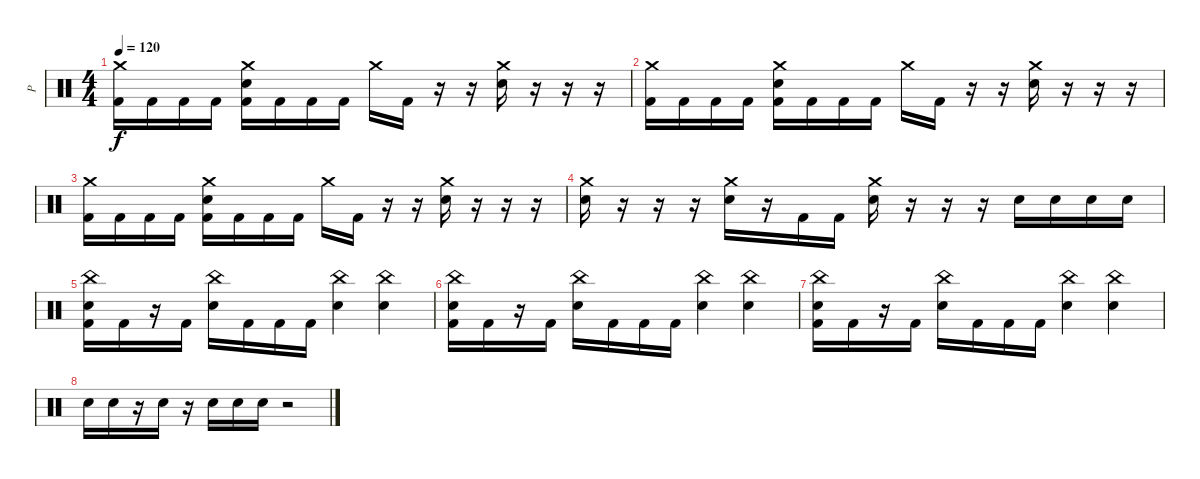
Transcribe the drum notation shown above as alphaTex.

\track ("P" "P") {instrument percussion}
\staff {score}
\articulation defaults
\ts (4 4)
\tempo 120
\clef neutral
\ks c
("Crash medium (hit)" "Kick (hit) 2").16{dy f} "Kick (hit) 2".16 "Kick (hit) 2".16 "Kick (hit) 2".16 ("Crash medium (hit)" "Electric Snare (hit)" "Kick (hit) 2").16 "Kick (hit) 2".16 "Kick (hit) 2".16 "Kick (hit) 2".16 "Crash medium (hit)".16 "Kick (hit) 2".16 r.16 r.16 ("Crash medium (hit)" "Electric Snare (hit)").16 r.16 r.16 r.16 |
("Crash medium (hit)" "Kick (hit) 2").16 "Kick (hit) 2".16 "Kick (hit) 2".16 "Kick (hit) 2".16 ("Crash medium (hit)" "Electric Snare (hit)" "Kick (hit) 2").16 "Kick (hit) 2".16 "Kick (hit) 2".16 "Kick (hit) 2".16 "Crash medium (hit)".16 "Kick (hit) 2".16 r.16 r.16 ("Crash medium (hit)" "Electric Snare (hit)").16 r.16 r.16 r.16 |
("Crash medium (hit)" "Kick (hit) 2").16 "Kick (hit) 2".16 "Kick (hit) 2".16 "Kick (hit) 2".16 ("Crash medium (hit)" "Electric Snare (hit)" "Kick (hit) 2").16 "Kick (hit) 2".16 "Kick (hit) 2".16 "Kick (hit) 2".16 "Crash medium (hit)".16 "Kick (hit) 2".16 r.16 r.16 ("Crash medium (hit)" "Electric Snare (hit)").16 r.16 r.16 r.16 |
("Crash medium (hit)" "Electric Snare (hit)").16 r.16 r.16 r.16 ("Crash medium (hit)" "Electric Snare (hit)").16 r.16 "Kick (hit) 2".16 "Kick (hit) 2".16 ("Crash medium (hit)" "Electric Snare (hit)").16 r.16 r.16 r.16 "Electric Snare (hit)".16 "Electric Snare (hit)".16 "Electric Snare (hit)".16 "Electric Snare (hit)".16 |
("China (hit)" "Electric Snare (hit)" "Kick (hit) 2").16 "Kick (hit) 2".16 r.16 "Kick (hit) 2".16 ("China (hit)" "Electric Snare (hit)").16 "Kick (hit) 2".16 "Kick (hit) 2".16 "Kick (hit) 2".16 ("China (hit)" "Electric Snare (hit)").4 ("China (hit)" "Electric Snare (hit)").4 |
("China (hit)" "Electric Snare (hit)" "Kick (hit) 2").16 "Kick (hit) 2".16 r.16 "Kick (hit) 2".16 ("China (hit)" "Electric Snare (hit)").16 "Kick (hit) 2".16 "Kick (hit) 2".16 "Kick (hit) 2".16 ("China (hit)" "Electric Snare (hit)").4 ("China (hit)" "Electric Snare (hit)").4 |
("China (hit)" "Electric Snare (hit)" "Kick (hit) 2").16 "Kick (hit) 2".16 r.16 "Kick (hit) 2".16 ("China (hit)" "Electric Snare (hit)").16 "Kick (hit) 2".16 "Kick (hit) 2".16 "Kick (hit) 2".16 ("China (hit)" "Electric Snare (hit)").4 ("China (hit)" "Electric Snare (hit)").4 |
"Electric Snare (hit)".16 "Electric Snare (hit)".16 r.16 "Electric Snare (hit)".16 r.16 "Electric Snare (hit)".16 "Electric Snare (hit)".16 "Electric Snare (hit)".16 r.2
